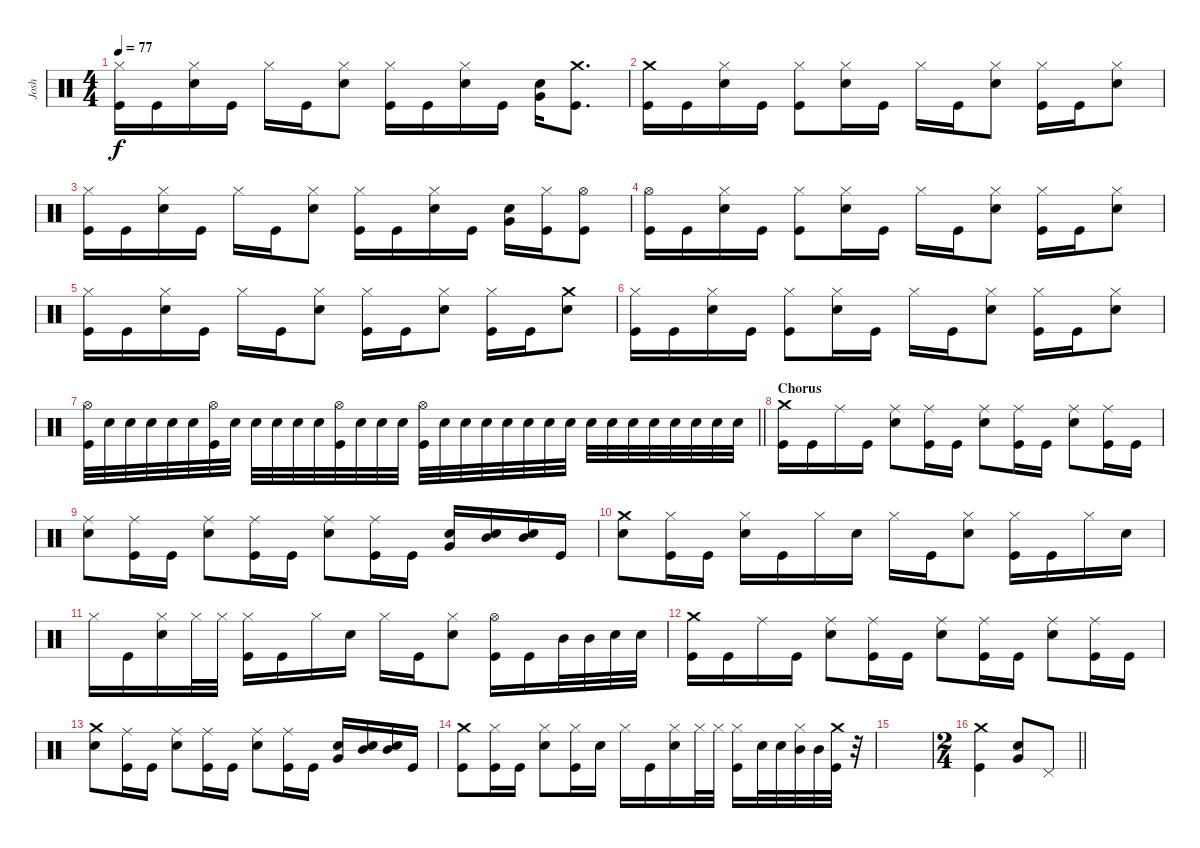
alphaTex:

\track ("Josh" "Josh") {instrument percussion}
\staff {score}
\articulation defaults
\ts (4 4)
\tempo 77
\clef neutral
\ks c
("Hi-Hat (closed)" "Kick (hit)").16{dy f} "Kick (hit)".16 ("Hi-Hat (closed)" "Snare (hit) 2").16 "Kick (hit)".16 "Hi-Hat (closed)".16 "Kick (hit)".16 ("Hi-Hat (closed)" "Snare (hit) 2").8 ("Hi-Hat (closed)" "Kick (hit)").16 "Kick (hit)".16 ("Hi-Hat (closed)" "Snare (hit) 2").16 "Kick (hit)".16 ("Very Low Tom (hit)" "Snare (hit) 2").16 ("Crash medium (hit)" "Kick (hit)").8{d} |
("Crash medium (hit)" "Kick (hit)").16 "Kick (hit)".16 ("Hi-Hat (closed)" "Snare (hit) 2").16 "Kick (hit)".16 ("Hi-Hat (closed)" "Kick (hit)").8 ("Hi-Hat (closed)" "Snare (hit) 2").16 "Kick (hit)".16 "Hi-Hat (closed)".16 "Kick (hit)".16 ("Hi-Hat (closed)" "Snare (hit) 2").8 ("Hi-Hat (closed)" "Kick (hit)").16 "Kick (hit)".16 ("Hi-Hat (closed)" "Snare (hit) 2").8 |
("Hi-Hat (closed)" "Kick (hit)").16 "Kick (hit)".16 ("Hi-Hat (closed)" "Snare (hit) 2").16 "Kick (hit)".16 "Hi-Hat (closed)".16 "Kick (hit)".16 ("Hi-Hat (closed)" "Snare (hit) 2").8 ("Hi-Hat (closed)" "Kick (hit)").16 "Kick (hit)".16 ("Hi-Hat (closed)" "Snare (hit) 2").16 "Kick (hit)".16 ("Very Low Tom (hit)" "Snare (hit) 2").16 ("Hi-Hat (closed)" "Kick (hit)").16 ("Hi-Hat (open)" "Kick (hit)").8 |
("Hi-Hat (open)" "Kick (hit)").16 "Kick (hit)".16 ("Hi-Hat (closed)" "Snare (hit) 2").16 "Kick (hit)".16 ("Hi-Hat (closed)" "Kick (hit)").8 ("Hi-Hat (closed)" "Snare (hit) 2").16 "Kick (hit)".16 "Hi-Hat (closed)".16 "Kick (hit)".16 ("Hi-Hat (closed)" "Snare (hit) 2").8 ("Hi-Hat (closed)" "Kick (hit)").16 "Kick (hit)".16 ("Hi-Hat (closed)" "Snare (hit) 2").8 |
("Hi-Hat (closed)" "Kick (hit)").16 "Kick (hit)".16 ("Hi-Hat (closed)" "Snare (hit) 2").16 "Kick (hit)".16 "Hi-Hat (closed)".16 "Kick (hit)".16 ("Hi-Hat (closed)" "Snare (hit) 2").8 ("Hi-Hat (closed)" "Kick (hit)").16 "Kick (hit)".16 ("Hi-Hat (closed)" "Snare (hit) 2").8 ("Hi-Hat (closed)" "Kick (hit)").16 "Kick (hit)".16 ("Crash medium (hit)" "Snare (hit) 2").8 |
("Hi-Hat (closed)" "Kick (hit)").16 "Kick (hit)".16 ("Hi-Hat (closed)" "Snare (hit) 2").16 "Kick (hit)".16 ("Hi-Hat (closed)" "Kick (hit)").8 ("Hi-Hat (closed)" "Snare (hit) 2").16 "Kick (hit)".16 "Hi-Hat (closed)".16 "Kick (hit)".16 ("Hi-Hat (closed)" "Snare (hit) 2").8 ("Hi-Hat (closed)" "Kick (hit)").16 "Kick (hit)".16 ("Hi-Hat (closed)" "Snare (hit) 2").8 |
\barLineRight lightlight
("Hi-Hat (open)" "Kick (hit)").32 "Snare (hit) 2".32 "Snare (hit) 2".32 "Snare (hit) 2".32 "Snare (hit) 2".32 "Snare (hit) 2".32 ("Hi-Hat (open)" "Kick (hit)").32 "Snare (hit) 2".32 "Snare (hit) 2".32 "Snare (hit) 2".32 "Snare (hit) 2".32 "Snare (hit) 2".32 ("Hi-Hat (open)" "Kick (hit)").32 "Snare (hit) 2".32 "Snare (hit) 2".32 "Snare (hit) 2".32 ("Hi-Hat (open)" "Kick (hit)").32 "Snare (hit) 2".32 "Snare (hit) 2".32 "Snare (hit) 2".32 "Snare (hit) 2".32 "Snare (hit) 2".32 "Snare (hit) 2".32 "Snare (hit) 2".32 "Snare (hit) 2".32 "Snare (hit) 2".32 "Snare (hit) 2".32 "Snare (hit) 2".32 "Snare (hit) 2".32 "Snare (hit) 2".32 "Snare (hit) 2".32 "Snare (hit) 2".32 |
\section ("" "Chorus")
("Crash medium (hit)" "Kick (hit)").16 "Kick (hit)".16 "Ride (middle)".16 "Kick (hit)".16 ("Ride (middle)" "Snare (hit) 2").8 ("Ride (middle)" "Kick (hit)").16 "Kick (hit)".16 ("Ride (middle)" "Snare (hit) 2").8 ("Ride (middle)" "Kick (hit)").16 "Kick (hit)".16 ("Ride (middle)" "Snare (hit) 2").8 ("Ride (middle)" "Kick (hit)").16 "Kick (hit)".16 |
("Ride (middle)" "Snare (hit) 2").8 ("Ride (middle)" "Kick (hit)").16 "Kick (hit)".16 ("Ride (middle)" "Snare (hit) 2").8 ("Ride (middle)" "Kick (hit)").16 "Kick (hit)".16 ("Ride (middle)" "Snare (hit) 2").8 ("Ride (middle)" "Kick (hit)").16 "Kick (hit)".16 ("Very Low Tom (hit)" "Snare (hit) 2").16 ("Mid Tom (hit)" "Snare (hit) 2").16 ("Mid Tom (hit)" "Snare (hit) 2").16 "Kick (hit)".16 |
("Crash medium (hit)" "Snare (hit) 2").8 ("Hi-Hat (closed)" "Kick (hit)").16 "Kick (hit)".16 ("Hi-Hat (closed)" "Snare (hit) 2").16 "Kick (hit)".16 "Hi-Hat (closed)".16 "Snare (hit) 2".16 "Hi-Hat (closed)".16 "Kick (hit)".16 ("Hi-Hat (closed)" "Snare (hit) 2").8 ("Hi-Hat (closed)" "Kick (hit)").16 "Kick (hit)".16 "Hi-Hat (closed)".16 "Snare (hit) 2".16 |
"Hi-Hat (closed)".16 "Kick (hit)".16 ("Hi-Hat (closed)" "Snare (hit) 2").16 "Hi-Hat (closed)".32 "Hi-Hat (closed)".32 ("Hi-Hat (closed)" "Kick (hit)").16 "Kick (hit)".16 "Hi-Hat (closed)".16 "Snare (hit) 2".16 "Hi-Hat (closed)".16 "Kick (hit)".16 ("Hi-Hat (closed)" "Snare (hit) 2").8 ("Hi-Hat (open)" "Kick (hit)").16 "Kick (hit)".16 "Mid Tom (hit)".32 "Mid Tom (hit)".32 "Snare (hit) 2".32 "Snare (hit) 2".32 |
("Crash medium (hit)" "Kick (hit)").16 "Kick (hit)".16 "Ride (middle)".16 "Kick (hit)".16 ("Ride (middle)" "Snare (hit) 2").8 ("Ride (middle)" "Kick (hit)").16 "Kick (hit)".16 ("Ride (middle)" "Snare (hit) 2").8 ("Ride (middle)" "Kick (hit)").16 "Kick (hit)".16 ("Ride (middle)" "Snare (hit) 2").8 ("Ride (middle)" "Kick (hit)").16 "Kick (hit)".16 |
("Crash medium (hit)" "Snare (hit) 2").8 ("Ride (middle)" "Kick (hit)").16 "Kick (hit)".16 ("Ride (middle)" "Snare (hit) 2").8 ("Ride (middle)" "Kick (hit)").16 "Kick (hit)".16 ("Ride (middle)" "Snare (hit) 2").8 ("Ride (middle)" "Kick (hit)").16 "Kick (hit)".16 ("Very Low Tom (hit)" "Snare (hit) 2").16 ("Mid Tom (hit)" "Snare (hit) 2").16 ("Mid Tom (hit)" "Snare (hit) 2").16 "Kick (hit)".16 |
("Crash medium (hit)" "Kick (hit)").8 ("Hi-Hat (closed)" "Kick (hit)").16 "Kick (hit)".16 ("Hi-Hat (closed)" "Snare (hit) 2").8 ("Hi-Hat (closed)" "Kick (hit)").16 "Snare (hit) 2".16 "Hi-Hat (closed)".16 "Kick (hit)".16 ("Hi-Hat (closed)" "Snare (hit) 2").16 "Hi-Hat (closed)".32 "Hi-Hat (closed)".32 ("Hi-Hat (closed)" "Kick (hit)").16 "Snare (hit) 2".32 "Snare (hit) 2".32 ("Hi-Hat (closed)" "Mid Tom (hit)").32 "Mid Tom (hit)".32 ("Crash medium (hit)" "Kick (hit)").32 r.32 |
|
\ts (2 4)
\barLineRight lightlight
("Crash medium (hit)" "Kick (hit)").4 ("Very Low Tom (hit)" "Snare (hit) 2").8 "Pedal Hi-Hat (hit)".8
